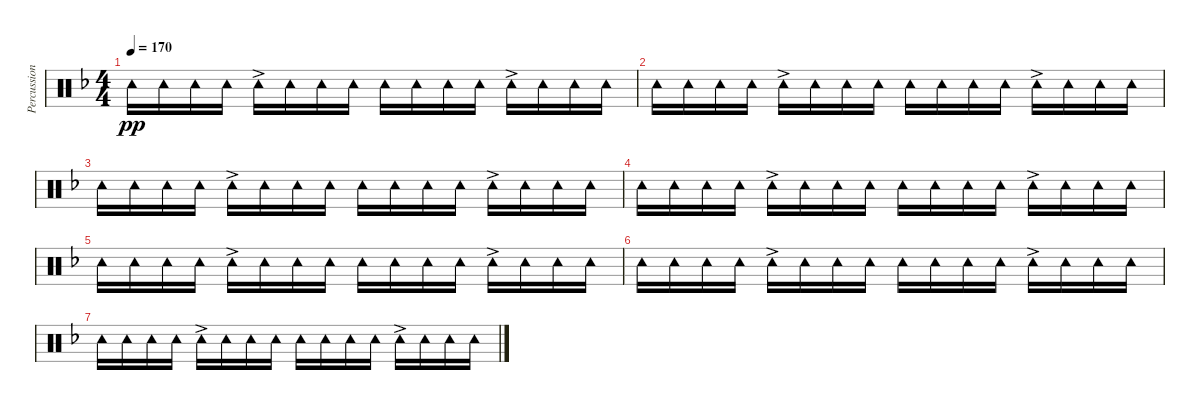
\track ("Percussion (Tainaka Ritsu)" "Percussion") {instrument percussion}
\staff {score}
\articulation defaults
\ts (4 4)
\tempo 170
\clef neutral
\ks f "Tambourine (hit)".16{dy pp} "Tambourine (hit)".16 "Tambourine (hit)".16 "Tambourine (hit)".16 "Tambourine (hit)"{ac}.16 "Tambourine (hit)".16 "Tambourine (hit)".16 "Tambourine (hit)".16 "Tambourine (hit)".16 "Tambourine (hit)".16 "Tambourine (hit)".16 "Tambourine (hit)".16 "Tambourine (hit)"{ac}.16 "Tambourine (hit)".16 "Tambourine (hit)".16 "Tambourine (hit)".16
|
"Tambourine (hit)".16 "Tambourine (hit)".16 "Tambourine (hit)".16 "Tambourine (hit)".16 "Tambourine (hit)"{ac}.16 "Tambourine (hit)".16 "Tambourine (hit)".16 "Tambourine (hit)".16 "Tambourine (hit)".16 "Tambourine (hit)".16 "Tambourine (hit)".16 "Tambourine (hit)".16 "Tambourine (hit)"{ac}.16 "Tambourine (hit)".16 "Tambourine (hit)".16 "Tambourine (hit)".16 |
"Tambourine (hit)".16 "Tambourine (hit)".16 "Tambourine (hit)".16 "Tambourine (hit)".16 "Tambourine (hit)"{ac}.16 "Tambourine (hit)".16 "Tambourine (hit)".16 "Tambourine (hit)".16 "Tambourine (hit)".16 "Tambourine (hit)".16 "Tambourine (hit)".16 "Tambourine (hit)".16 "Tambourine (hit)"{ac}.16 "Tambourine (hit)".16 "Tambourine (hit)".16 "Tambourine (hit)".16 |
"Tambourine (hit)".16 "Tambourine (hit)".16 "Tambourine (hit)".16 "Tambourine (hit)".16 "Tambourine (hit)"{ac}.16 "Tambourine (hit)".16 "Tambourine (hit)".16 "Tambourine (hit)".16 "Tambourine (hit)".16 "Tambourine (hit)".16 "Tambourine (hit)".16 "Tambourine (hit)".16 "Tambourine (hit)"{ac}.16 "Tambourine (hit)".16 "Tambourine (hit)".16 "Tambourine (hit)".16 |
"Tambourine (hit)".16 "Tambourine (hit)".16 "Tambourine (hit)".16 "Tambourine (hit)".16 "Tambourine (hit)"{ac}.16 "Tambourine (hit)".16 "Tambourine (hit)".16 "Tambourine (hit)".16 "Tambourine (hit)".16 "Tambourine (hit)".16 "Tambourine (hit)".16 "Tambourine (hit)".16 "Tambourine (hit)"{ac}.16 "Tambourine (hit)".16 "Tambourine (hit)".16 "Tambourine (hit)".16 |
"Tambourine (hit)".16 "Tambourine (hit)".16 "Tambourine (hit)".16 "Tambourine (hit)".16 "Tambourine (hit)"{ac}.16 "Tambourine (hit)".16 "Tambourine (hit)".16 "Tambourine (hit)".16 "Tambourine (hit)".16 "Tambourine (hit)".16 "Tambourine (hit)".16 "Tambourine (hit)".16 "Tambourine (hit)"{ac}.16 "Tambourine (hit)".16 "Tambourine (hit)".16 "Tambourine (hit)".16 |
"Tambourine (hit)".16 "Tambourine (hit)".16 "Tambourine (hit)".16 "Tambourine (hit)".16 "Tambourine (hit)"{ac}.16 "Tambourine (hit)".16 "Tambourine (hit)".16 "Tambourine (hit)".16 "Tambourine (hit)".16 "Tambourine (hit)".16 "Tambourine (hit)".16 "Tambourine (hit)".16 "Tambourine (hit)"{ac}.16 "Tambourine (hit)".16 "Tambourine (hit)".16 "Tambourine (hit)".16
